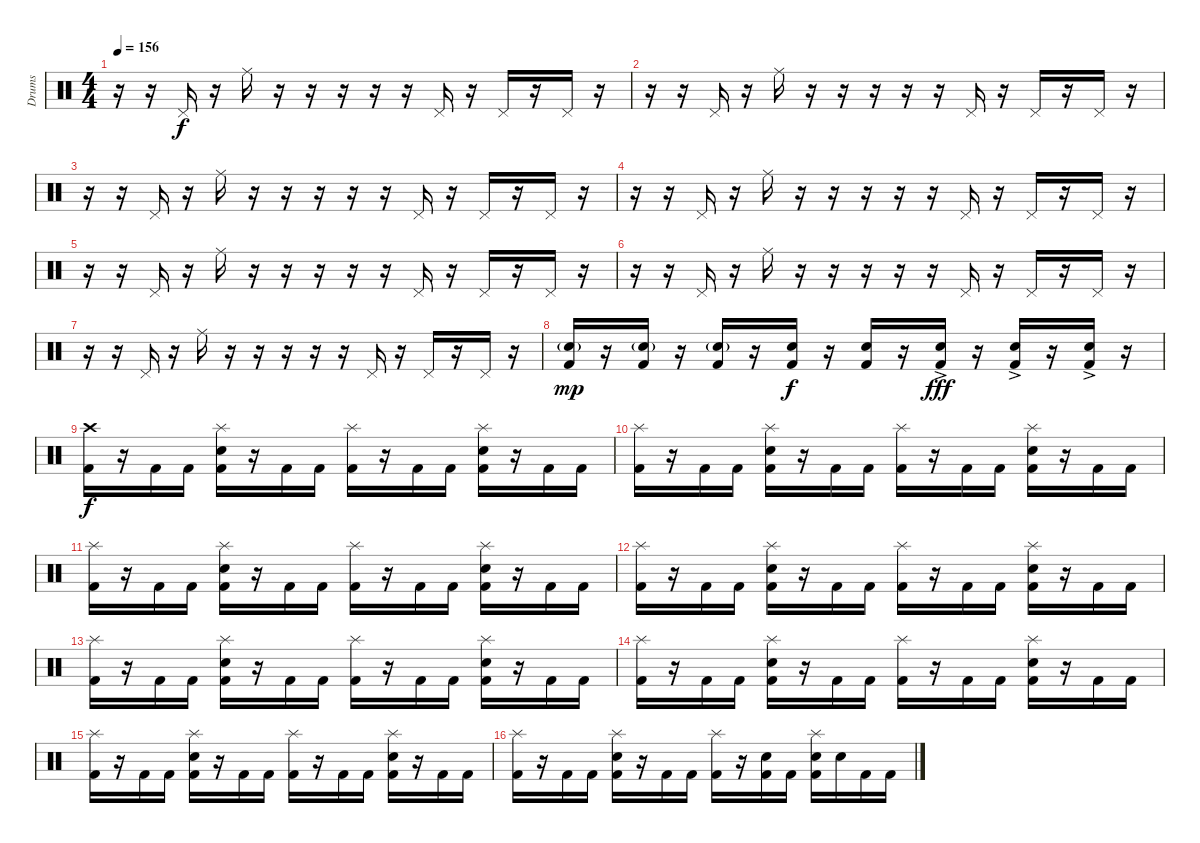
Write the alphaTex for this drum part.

\track ("Drums" "Drums") {instrument percussion}
\staff {score}
\articulation defaults
\ts (4 4)
\section ("" "")
\tempo 156
\clef neutral
\ks c
r.16{dy f} r.16 "Pedal Hi-Hat (hit)".16 r.16 "Ride (middle)".16 r.16 r.16 r.16 r.16 r.16 "Pedal Hi-Hat (hit)".16 r.16 "Pedal Hi-Hat (hit)".16 r.16 "Pedal Hi-Hat (hit)".16 r.16 |
r.16 r.16 "Pedal Hi-Hat (hit)".16 r.16 "Ride (middle)".16 r.16 r.16 r.16 r.16 r.16 "Pedal Hi-Hat (hit)".16 r.16 "Pedal Hi-Hat (hit)".16 r.16 "Pedal Hi-Hat (hit)".16 r.16 |
r.16 r.16 "Pedal Hi-Hat (hit)".16 r.16 "Ride (middle)".16 r.16 r.16 r.16 r.16 r.16 "Pedal Hi-Hat (hit)".16 r.16 "Pedal Hi-Hat (hit)".16 r.16 "Pedal Hi-Hat (hit)".16 r.16 |
r.16 r.16 "Pedal Hi-Hat (hit)".16 r.16 "Ride (middle)".16 r.16 r.16 r.16 r.16 r.16 "Pedal Hi-Hat (hit)".16 r.16 "Pedal Hi-Hat (hit)".16 r.16 "Pedal Hi-Hat (hit)".16 r.16 |
r.16 r.16 "Pedal Hi-Hat (hit)".16 r.16 "Ride (middle)".16 r.16 r.16 r.16 r.16 r.16 "Pedal Hi-Hat (hit)".16 r.16 "Pedal Hi-Hat (hit)".16 r.16 "Pedal Hi-Hat (hit)".16 r.16 |
r.16 r.16 "Pedal Hi-Hat (hit)".16 r.16 "Ride (middle)".16 r.16 r.16 r.16 r.16 r.16 "Pedal Hi-Hat (hit)".16 r.16 "Pedal Hi-Hat (hit)".16 r.16 "Pedal Hi-Hat (hit)".16 r.16 |
r.16 r.16 "Pedal Hi-Hat (hit)".16 r.16 "Ride (middle)".16 r.16 r.16 r.16 r.16 r.16 "Pedal Hi-Hat (hit)".16 r.16 "Pedal Hi-Hat (hit)".16 r.16 "Pedal Hi-Hat (hit)".16 r.16 |
("Snare (hit) 2"{g} "Kick (hit) 2").16{dy mp} r.16 ("Snare (hit) 2"{g} "Kick (hit) 2").16 r.16 ("Snare (hit) 2"{g} "Kick (hit) 2").16 r.16 ("Snare (hit) 2" "Kick (hit) 2").16{dy f} r.16 ("Snare (hit) 2" "Kick (hit) 2").16 r.16 ("Snare (hit) 2"{ac} "Kick (hit) 2").16{dy fff} r.16 ("Snare (hit) 2"{ac} "Kick (hit) 2").16 r.16 ("Snare (hit) 2"{ac} "Kick (hit) 2").16 r.16 |
("Crash high (hit)" "Kick (hit) 2").16{dy f} r.16 "Kick (hit) 2".16 "Kick (hit) 2".16 ("Splash (hit)" "Snare (hit) 2" "Kick (hit) 2").16 r.16 "Kick (hit) 2".16 "Kick (hit) 2".16 ("Splash (hit)" "Kick (hit) 2").16 r.16 "Kick (hit) 2".16 "Kick (hit) 2".16 ("Splash (hit)" "Snare (hit) 2" "Kick (hit) 2").16 r.16 "Kick (hit) 2".16 "Kick (hit) 2".16 |
("Splash (hit)" "Kick (hit) 2").16 r.16 "Kick (hit) 2".16 "Kick (hit) 2".16 ("Splash (hit)" "Snare (hit) 2" "Kick (hit) 2").16 r.16 "Kick (hit) 2".16 "Kick (hit) 2".16 ("Splash (hit)" "Kick (hit) 2").16 r.16 "Kick (hit) 2".16 "Kick (hit) 2".16 ("Splash (hit)" "Snare (hit) 2" "Kick (hit) 2").16 r.16 "Kick (hit) 2".16 "Kick (hit) 2".16 |
("Splash (hit)" "Kick (hit) 2").16 r.16 "Kick (hit) 2".16 "Kick (hit) 2".16 ("Splash (hit)" "Snare (hit) 2" "Kick (hit) 2").16 r.16 "Kick (hit) 2".16 "Kick (hit) 2".16 ("Splash (hit)" "Kick (hit) 2").16 r.16 "Kick (hit) 2".16 "Kick (hit) 2".16 ("Splash (hit)" "Snare (hit) 2" "Kick (hit) 2").16 r.16 "Kick (hit) 2".16 "Kick (hit) 2".16 |
("Splash (hit)" "Kick (hit) 2").16 r.16 "Kick (hit) 2".16 "Kick (hit) 2".16 ("Splash (hit)" "Snare (hit) 2" "Kick (hit) 2").16 r.16 "Kick (hit) 2".16 "Kick (hit) 2".16 ("Splash (hit)" "Kick (hit) 2").16 r.16 "Kick (hit) 2".16 "Kick (hit) 2".16 ("Splash (hit)" "Snare (hit) 2" "Kick (hit) 2").16 r.16 "Kick (hit) 2".16 "Kick (hit) 2".16 |
("Splash (hit)" "Kick (hit) 2").16 r.16 "Kick (hit) 2".16 "Kick (hit) 2".16 ("Splash (hit)" "Snare (hit) 2" "Kick (hit) 2").16 r.16 "Kick (hit) 2".16 "Kick (hit) 2".16 ("Splash (hit)" "Kick (hit) 2").16 r.16 "Kick (hit) 2".16 "Kick (hit) 2".16 ("Splash (hit)" "Snare (hit) 2" "Kick (hit) 2").16 r.16 "Kick (hit) 2".16 "Kick (hit) 2".16 |
("Splash (hit)" "Kick (hit) 2").16 r.16 "Kick (hit) 2".16 "Kick (hit) 2".16 ("Splash (hit)" "Snare (hit) 2" "Kick (hit) 2").16 r.16 "Kick (hit) 2".16 "Kick (hit) 2".16 ("Splash (hit)" "Kick (hit) 2").16 r.16 "Kick (hit) 2".16 "Kick (hit) 2".16 ("Splash (hit)" "Snare (hit) 2" "Kick (hit) 2").16 r.16 "Kick (hit) 2".16 "Kick (hit) 2".16 |
("Splash (hit)" "Kick (hit) 2").16 r.16 "Kick (hit) 2".16 "Kick (hit) 2".16 ("Splash (hit)" "Snare (hit) 2" "Kick (hit) 2").16 r.16 "Kick (hit) 2".16 "Kick (hit) 2".16 ("Splash (hit)" "Kick (hit) 2").16 r.16 "Kick (hit) 2".16 "Kick (hit) 2".16 ("Splash (hit)" "Snare (hit) 2" "Kick (hit) 2").16 r.16 "Kick (hit) 2".16 "Kick (hit) 2".16 |
("Splash (hit)" "Kick (hit) 2").16 r.16 "Kick (hit) 2".16 "Kick (hit) 2".16 ("Splash (hit)" "Snare (hit) 2" "Kick (hit) 2").16 r.16 "Kick (hit) 2".16 "Kick (hit) 2".16 ("Splash (hit)" "Kick (hit) 2").16 r.16 ("Snare (hit) 2" "Kick (hit) 2").16 "Kick (hit) 2".16 ("Splash (hit)" "Snare (hit) 2" "Kick (hit) 2").16 "Snare (hit) 2".16 "Kick (hit) 2".16 "Kick (hit) 2".16
